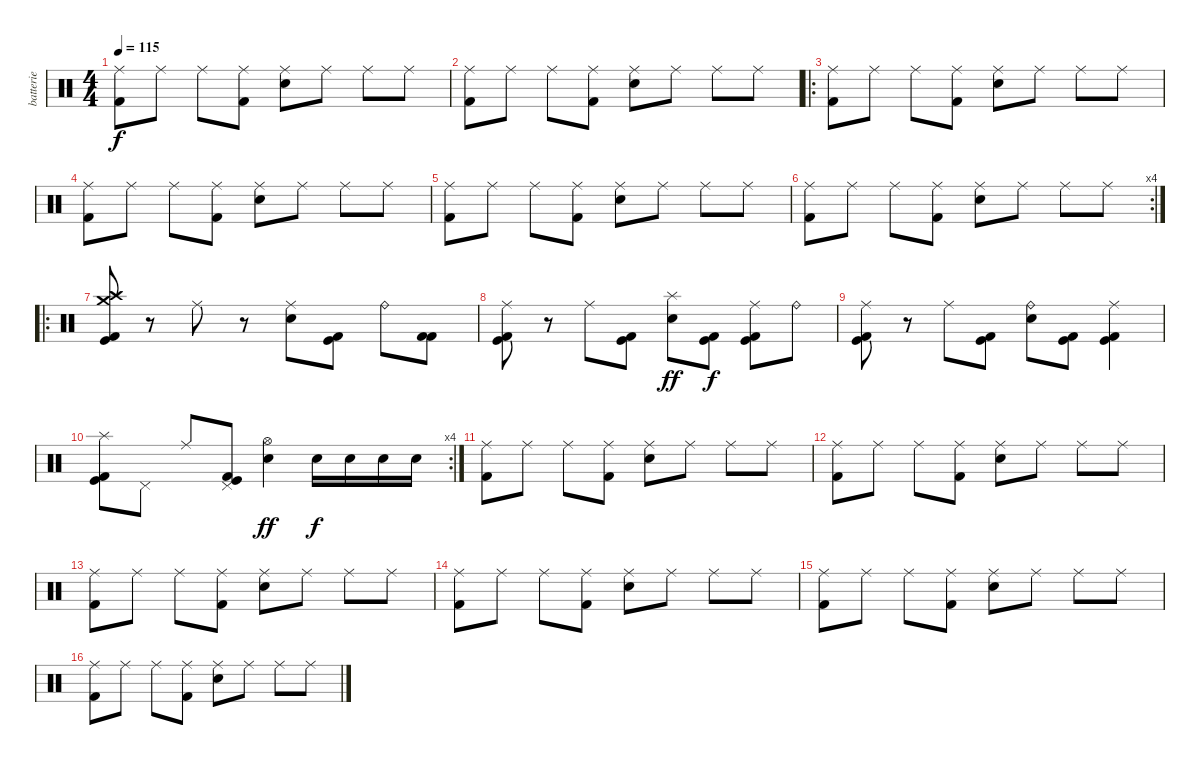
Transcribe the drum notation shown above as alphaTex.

\track ("batterie" "batterie") {instrument percussion}
\staff {score}
\articulation defaults
\ts (4 4)
\tempo 115
\clef neutral
\ks c
("Ride (middle)" "Kick (hit) 2").8{dy f} "Ride (middle)".8 "Ride (middle)".8 ("Ride (middle)" "Kick (hit) 2").8 ("Ride (middle)" "Electric Snare (hit)").8 "Ride (middle)".8 "Ride (middle)".8 "Ride (middle)".8 |
("Ride (middle)" "Kick (hit) 2").8 "Ride (middle)".8 "Ride (middle)".8 ("Ride (middle)" "Kick (hit) 2").8 ("Ride (middle)" "Electric Snare (hit)").8 "Ride (middle)".8 "Ride (middle)".8 "Ride (middle)".8 |
\ro
("Ride (middle)" "Kick (hit) 2").8 "Ride (middle)".8 "Ride (middle)".8 ("Ride (middle)" "Kick (hit) 2").8 ("Ride (middle)" "Electric Snare (hit)").8 "Ride (middle)".8 "Ride (middle)".8 "Ride (middle)".8 |
("Ride (middle)" "Kick (hit) 2").8 "Ride (middle)".8 "Ride (middle)".8 ("Ride (middle)" "Kick (hit) 2").8 ("Ride (middle)" "Electric Snare (hit)").8 "Ride (middle)".8 "Ride (middle)".8 "Ride (middle)".8 |
("Ride (middle)" "Kick (hit) 2").8 "Ride (middle)".8 "Ride (middle)".8 ("Ride (middle)" "Kick (hit) 2").8 ("Ride (middle)" "Electric Snare (hit)").8 "Ride (middle)".8 "Ride (middle)".8 "Ride (middle)".8 |
\rc 4
("Ride (middle)" "Kick (hit) 2").8 "Ride (middle)".8 "Ride (middle)".8 ("Ride (middle)" "Kick (hit) 2").8 ("Ride (middle)" "Electric Snare (hit)").8 "Ride (middle)".8 "Ride (middle)".8 "Ride (middle)".8 |
\ro
("Crash high (hit)" "Crash medium (hit)" "Kick (hit)" "Kick (hit) 2").8 r.8 "Ride (middle)".8 r.8 ("Ride (middle)" "Electric Snare (hit)").8 ("Kick (hit)" "Kick (hit) 2").8 "Ride (bell)".8 ("Kick (hit) 2" "Kick (hit) 2").8 |
("Ride (middle)" "Kick (hit)" "Kick (hit) 2").8 r.8 "Ride (middle)".8 ("Kick (hit)" "Kick (hit) 2").8 ("Splash (hit)" "Electric Snare (hit)").8{dy ff} ("Kick (hit)" "Kick (hit) 2").8{dy f} ("Ride (middle)" "Kick (hit)" "Kick (hit) 2").8 "Ride (bell)".8 |
("Ride (middle)" "Kick (hit)" "Kick (hit) 2").8 r.8 "Ride (middle)".8 ("Kick (hit)" "Kick (hit) 2").8 ("Ride (bell)" "Electric Snare (hit)").8 ("Kick (hit)" "Kick (hit) 2").8 ("Ride (middle)" "Kick (hit)" "Kick (hit) 2").4 |
\rc 4
("Splash (hit)" "Kick (hit)" "Kick (hit) 2").8 "Pedal Hi-Hat (hit)".8 "Ride (middle)".8 ("Pedal Hi-Hat (hit)" "Kick (hit)" "Kick (hit) 2").8 ("Hi-Hat (open)" "Electric Snare (hit)").4{dy ff} "Electric Snare (hit)".16{dy f} "Electric Snare (hit)".16 "Electric Snare (hit)".16 "Electric Snare (hit)".16 |
("Ride (middle)" "Kick (hit) 2").8 "Ride (middle)".8 "Ride (middle)".8 ("Ride (middle)" "Kick (hit) 2").8 ("Ride (middle)" "Electric Snare (hit)").8 "Ride (middle)".8 "Ride (middle)".8 "Ride (middle)".8 |
("Ride (middle)" "Kick (hit) 2").8 "Ride (middle)".8 "Ride (middle)".8 ("Ride (middle)" "Kick (hit) 2").8 ("Ride (middle)" "Electric Snare (hit)").8 "Ride (middle)".8 "Ride (middle)".8 "Ride (middle)".8 |
("Ride (middle)" "Kick (hit) 2").8 "Ride (middle)".8 "Ride (middle)".8 ("Ride (middle)" "Kick (hit) 2").8 ("Ride (middle)" "Electric Snare (hit)").8 "Ride (middle)".8 "Ride (middle)".8 "Ride (middle)".8 |
("Ride (middle)" "Kick (hit) 2").8 "Ride (middle)".8 "Ride (middle)".8 ("Ride (middle)" "Kick (hit) 2").8 ("Ride (middle)" "Electric Snare (hit)").8 "Ride (middle)".8 "Ride (middle)".8 "Ride (middle)".8 |
("Ride (middle)" "Kick (hit) 2").8 "Ride (middle)".8 "Ride (middle)".8 ("Ride (middle)" "Kick (hit) 2").8 ("Ride (middle)" "Electric Snare (hit)").8 "Ride (middle)".8 "Ride (middle)".8 "Ride (middle)".8 |
("Ride (middle)" "Kick (hit) 2").8 "Ride (middle)".8 "Ride (middle)".8 ("Ride (middle)" "Kick (hit) 2").8 ("Ride (middle)" "Electric Snare (hit)").8 "Ride (middle)".8 "Ride (middle)".8 "Ride (middle)".8
